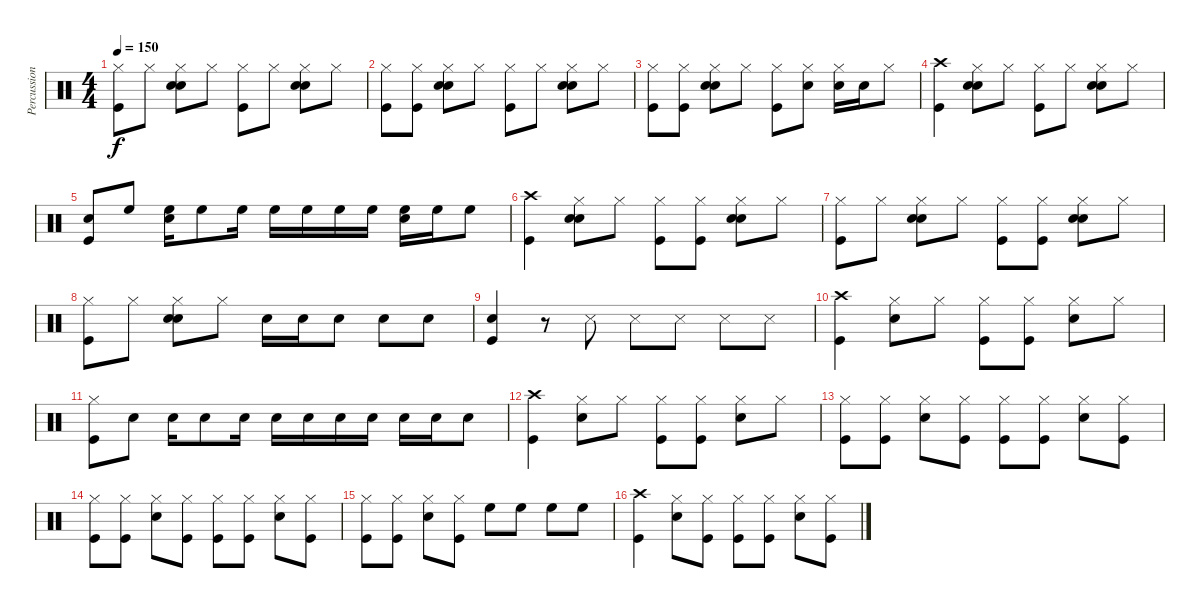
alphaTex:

\track ("Percussion" "Percussion") {instrument percussion}
\staff {score}
\articulation defaults
\ts (4 4)
\tempo 150
\clef neutral
\ks c
("Hi-Hat (closed)" "Kick (hit)").8{dy f} "Hi-Hat (closed)".8 ("Hi-Hat (closed)" "Hand Clap (hit)" "Snare (hit) 2").8 "Hi-Hat (closed)".8 ("Hi-Hat (closed)" "Kick (hit)").8 "Hi-Hat (closed)".8 ("Hi-Hat (closed)" "Hand Clap (hit)" "Snare (hit) 2").8 "Hi-Hat (closed)".8 |
("Hi-Hat (closed)" "Kick (hit)").8 ("Hi-Hat (closed)" "Kick (hit)").8 ("Hi-Hat (closed)" "Hand Clap (hit)" "Snare (hit) 2").8 "Hi-Hat (closed)".8 ("Hi-Hat (closed)" "Kick (hit)").8 "Hi-Hat (closed)".8 ("Hi-Hat (closed)" "Hand Clap (hit)" "Snare (hit) 2").8 "Hi-Hat (closed)".8 |
("Hi-Hat (closed)" "Kick (hit)").8 ("Hi-Hat (closed)" "Kick (hit)").8 ("Hi-Hat (closed)" "Hand Clap (hit)" "Snare (hit) 2").8 "Hi-Hat (closed)".8 ("Hi-Hat (closed)" "Kick (hit)").8 ("Hi-Hat (closed)" "Snare (hit) 2").8 ("Hi-Hat (closed)" "Hand Clap (hit)").16 "Snare (hit) 2".16 "Hi-Hat (closed)".8 |
("Crash high (hit)" "Kick (hit)").4 ("Hi-Hat (closed)" "Hand Clap (hit)" "Snare (hit) 2").8 "Hi-Hat (closed)".8 ("Hi-Hat (closed)" "Kick (hit)").8 "Hi-Hat (closed)".8 ("Hi-Hat (closed)" "Hand Clap (hit)" "Snare (hit) 2").8 "Hi-Hat (closed)".8 |
("Snare (hit) 2" "Kick (hit)").8 "High Floor Tom (hit)".8 ("High Floor Tom (hit)" "Hand Clap (hit)").16 "High Floor Tom (hit)".8 "High Floor Tom (hit)".16 "High Floor Tom (hit)".16 "High Floor Tom (hit)".16 "High Floor Tom (hit)".16 "High Floor Tom (hit)".16 ("High Floor Tom (hit)" "Hand Clap (hit)").16 "High Floor Tom (hit)".16 "High Floor Tom (hit)".8 |
("Crash high (hit)" "Kick (hit)").4 ("Hi-Hat (closed)" "Hand Clap (hit)" "Snare (hit) 2").8 "Hi-Hat (closed)".8 ("Hi-Hat (closed)" "Kick (hit)").8 ("Hi-Hat (closed)" "Kick (hit)").8 ("Hi-Hat (closed)" "Hand Clap (hit)" "Snare (hit) 2").8 "Hi-Hat (closed)".8 |
("Hi-Hat (closed)" "Kick (hit)").8 "Hi-Hat (closed)".8 ("Hi-Hat (closed)" "Hand Clap (hit)" "Snare (hit) 2").8 "Hi-Hat (closed)".8 ("Hi-Hat (closed)" "Kick (hit)").8 ("Hi-Hat (closed)" "Kick (hit)").8 ("Hi-Hat (closed)" "Hand Clap (hit)" "Snare (hit) 2").8 "Hi-Hat (closed)".8 |
("Hi-Hat (closed)" "Kick (hit)").8 "Hi-Hat (closed)".8 ("Hi-Hat (closed)" "Hand Clap (hit)" "Snare (hit) 2").8 "Hi-Hat (closed)".8 "Snare (hit) 2".16 "Snare (hit) 2".16 "Snare (hit) 2".8 "Snare (hit) 2".8 "Snare (hit) 2".8 |
("Snare (hit) 2" "Kick (hit)").4 r.8 "Snare (side stick) 3".8 "Snare (side stick) 3".8 "Snare (side stick) 3".8 "Snare (side stick) 3".8 "Snare (side stick) 3".8 |
("Crash high (hit)" "Kick (hit)").4 ("Hi-Hat (closed)" "Snare (hit) 2").8 "Hi-Hat (closed)".8 ("Hi-Hat (closed)" "Kick (hit)").8 ("Hi-Hat (closed)" "Kick (hit)").8 ("Hi-Hat (closed)" "Snare (hit) 2").8 "Hi-Hat (closed)".8 |
("Hi-Hat (closed)" "Kick (hit)").8 "Snare (hit) 2".8 "Snare (hit) 2".16 "Snare (hit) 2".8 "Snare (hit) 2".16 "Snare (hit) 2".16 "Snare (hit) 2".16 "Snare (hit) 2".16 "Snare (hit) 2".16 "Snare (hit) 2".16 "Snare (hit) 2".16 "Snare (hit) 2".8 |
("Crash high (hit)" "Kick (hit)").4 ("Hi-Hat (closed)" "Snare (hit) 2").8 "Hi-Hat (closed)".8 ("Hi-Hat (closed)" "Kick (hit)").8 ("Hi-Hat (closed)" "Kick (hit)").8 ("Hi-Hat (closed)" "Snare (hit) 2").8 "Hi-Hat (closed)".8 |
("Hi-Hat (closed)" "Kick (hit)").8 ("Hi-Hat (closed)" "Kick (hit)").8 ("Hi-Hat (closed)" "Snare (hit) 2").8 ("Hi-Hat (closed)" "Kick (hit)").8 ("Hi-Hat (closed)" "Kick (hit)").8 ("Hi-Hat (closed)" "Kick (hit)").8 ("Hi-Hat (closed)" "Snare (hit) 2").8 ("Hi-Hat (closed)" "Kick (hit)").8 |
("Hi-Hat (closed)" "Kick (hit)").8 ("Hi-Hat (closed)" "Kick (hit)").8 ("Hi-Hat (closed)" "Snare (hit) 2").8 ("Hi-Hat (closed)" "Kick (hit)").8 ("Hi-Hat (closed)" "Kick (hit)").8 ("Hi-Hat (closed)" "Kick (hit)").8 ("Hi-Hat (closed)" "Snare (hit) 2").8 ("Hi-Hat (closed)" "Kick (hit)").8 |
("Hi-Hat (closed)" "Kick (hit)").8 ("Hi-Hat (closed)" "Kick (hit)").8 ("Hi-Hat (closed)" "Snare (hit) 2").8 ("Hi-Hat (closed)" "Kick (hit)").8 "High Floor Tom (hit)".8 "High Floor Tom (hit)".8 "High Floor Tom (hit)".8 "High Floor Tom (hit)".8 |
("Crash high (hit)" "Kick (hit)").4 ("Hi-Hat (closed)" "Snare (hit) 2").8 ("Hi-Hat (closed)" "Kick (hit)").8 ("Hi-Hat (closed)" "Kick (hit)").8 ("Hi-Hat (closed)" "Kick (hit)").8 ("Hi-Hat (closed)" "Snare (hit) 2").8 ("Hi-Hat (closed)" "Kick (hit)").8
